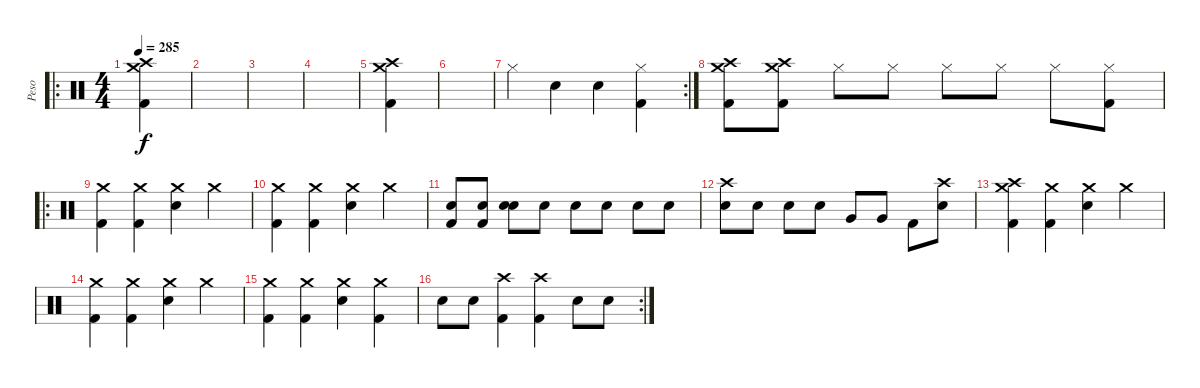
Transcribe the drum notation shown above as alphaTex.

\track ("Peso" "Peso") {instrument percussion}
\staff {score}
\articulation defaults
\ro
\ts (4 4)
\tempo 285
\clef neutral
\ks c
("Crash medium (hit)" "Crash high (hit)" "Kick (hit) 2").4{dy f} |
|
|
|
("Crash medium (hit)" "Crash high (hit)" "Kick (hit) 2").4 |
|
\rc 2 "Hi-Hat (closed)"{x}.4 "Snare (hit)"{x}.4 "Snare (hit)"{x}.4
("Hi-Hat (closed)" "Kick (hit) 2").4 |
("Crash medium (hit)" "Crash high (hit)" "Kick (hit) 2").8 ("Crash medium (hit)" "Crash high (hit)" "Kick (hit) 2").8 "Hi-Hat (closed)".8 "Hi-Hat (closed)".8 "Hi-Hat (closed)".8 "Hi-Hat (closed)".8 "Hi-Hat (closed)".8 ("Hi-Hat (closed)" "Kick (hit) 2").8 |
\ro
("Crash medium (hit)" "Kick (hit) 2").4 ("Crash medium (hit)" "Kick (hit) 2").4 ("Crash medium (hit)" "Snare (hit) 2").4 "Crash medium (hit)".4 |
("Crash medium (hit)" "Kick (hit) 2").4 ("Crash medium (hit)" "Kick (hit) 2").4 ("Crash medium (hit)" "Snare (hit) 2").4 "Crash medium (hit)".4 |
("Snare (hit) 2" "Kick (hit) 2").8 ("Snare (hit) 2" "Kick (hit) 2").8 ("Snare (hit) 2" "Snare (hit) 2").8 "Snare (hit) 2".8 "Snare (hit) 2".8 "Snare (hit) 2".8 "Snare (hit) 2".8 "Snare (hit) 2".8 |
("Crash high (hit)" "Snare (hit) 2").8 "Snare (hit) 2".8 "Snare (hit) 2".8 "Snare (hit) 2".8 "Very Low Tom (hit)".8 "Very Low Tom (hit)".8 "Kick (hit) 2".8 ("Crash high (hit)" "Snare (hit) 2").8 |
("Crash high (hit)" "Crash medium (hit)" "Kick (hit) 2").4 ("Crash medium (hit)" "Kick (hit) 2").4 ("Crash medium (hit)" "Snare (hit) 2").4 "Crash medium (hit)".4 |
("Crash medium (hit)" "Kick (hit) 2").4 ("Crash medium (hit)" "Kick (hit) 2").4 ("Crash medium (hit)" "Snare (hit) 2").4 "Crash medium (hit)".4 |
("Crash medium (hit)" "Kick (hit) 2").4 ("Crash medium (hit)" "Kick (hit) 2").4 ("Crash medium (hit)" "Snare (hit) 2").4 ("Crash medium (hit)" "Kick (hit) 2").4 |
\rc 2 "Snare (hit) 2".8 "Snare (hit) 2".8
("Crash high (hit)" "Kick (hit) 2").4 ("Crash high (hit)" "Kick (hit) 2").4 "Snare (hit) 2".8 "Snare (hit) 2".8
